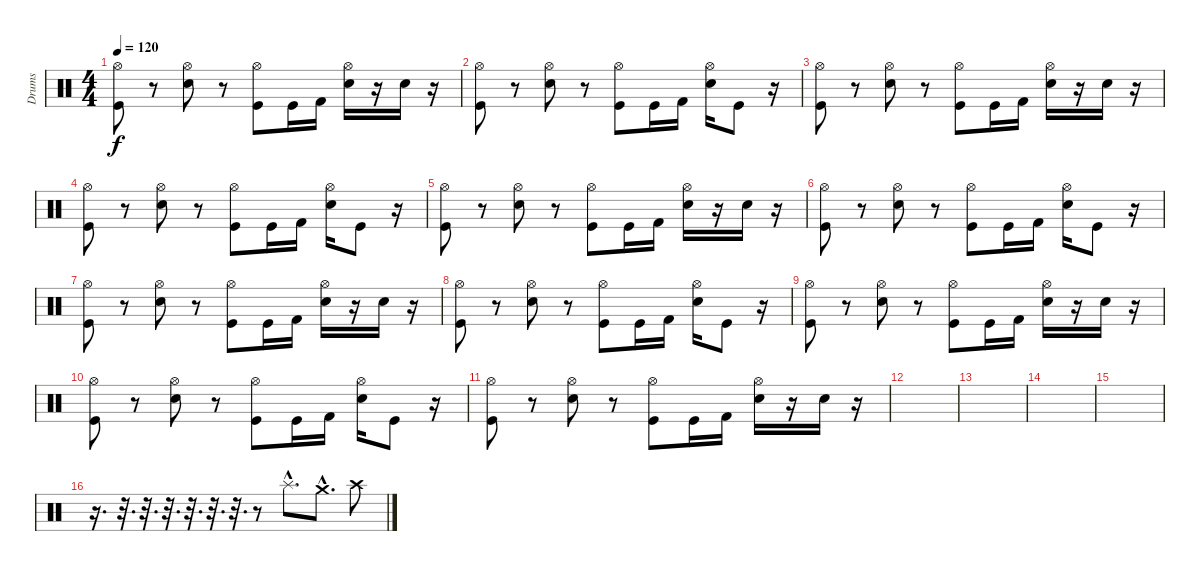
\track ("Drums" "Drums") {instrument percussion}
\staff {score}
\articulation defaults
\ts (4 4)
\tempo 120
\clef neutral
\ks c
("Hi-Hat (open)" "Kick (hit)").8{dy f} r.8 ("Hi-Hat (open)" "Snare (hit) 2").8 r.8 ("Hi-Hat (open)" "Kick (hit)").8 "Kick (hit)".16 "Kick (hit) 2".16 ("Hi-Hat (open)" "Snare (hit) 2").16 r.16 "Snare (hit) 2".16 r.16 |
("Hi-Hat (open)" "Kick (hit)").8 r.8 ("Hi-Hat (open)" "Snare (hit) 2").8 r.8 ("Hi-Hat (open)" "Kick (hit)").8 "Kick (hit)".16 "Kick (hit) 2".16 ("Hi-Hat (open)" "Snare (hit) 2").16 "Kick (hit)".8 r.16 |
("Hi-Hat (open)" "Kick (hit)").8 r.8 ("Hi-Hat (open)" "Snare (hit) 2").8 r.8 ("Hi-Hat (open)" "Kick (hit)").8 "Kick (hit)".16 "Kick (hit) 2".16 ("Hi-Hat (open)" "Snare (hit) 2").16 r.16 "Snare (hit) 2".16 r.16 |
("Hi-Hat (open)" "Kick (hit)").8 r.8 ("Hi-Hat (open)" "Snare (hit) 2").8 r.8 ("Hi-Hat (open)" "Kick (hit)").8 "Kick (hit)".16 "Kick (hit) 2".16 ("Hi-Hat (open)" "Snare (hit) 2").16 "Kick (hit)".8 r.16 |
("Hi-Hat (open)" "Kick (hit)").8 r.8 ("Hi-Hat (open)" "Snare (hit) 2").8 r.8 ("Hi-Hat (open)" "Kick (hit)").8 "Kick (hit)".16 "Kick (hit) 2".16 ("Hi-Hat (open)" "Snare (hit) 2").16 r.16 "Snare (hit) 2".16 r.16 |
("Hi-Hat (open)" "Kick (hit)").8 r.8 ("Hi-Hat (open)" "Snare (hit) 2").8 r.8 ("Hi-Hat (open)" "Kick (hit)").8 "Kick (hit)".16 "Kick (hit) 2".16 ("Hi-Hat (open)" "Snare (hit) 2").16 "Kick (hit)".8 r.16 |
("Hi-Hat (open)" "Kick (hit)").8 r.8 ("Hi-Hat (open)" "Snare (hit) 2").8 r.8 ("Hi-Hat (open)" "Kick (hit)").8 "Kick (hit)".16 "Kick (hit) 2".16 ("Hi-Hat (open)" "Snare (hit) 2").16 r.16 "Snare (hit) 2".16 r.16 |
("Hi-Hat (open)" "Kick (hit)").8 r.8 ("Hi-Hat (open)" "Snare (hit) 2").8 r.8 ("Hi-Hat (open)" "Kick (hit)").8 "Kick (hit)".16 "Kick (hit) 2".16 ("Hi-Hat (open)" "Snare (hit) 2").16 "Kick (hit)".8 r.16 |
("Hi-Hat (open)" "Kick (hit)").8 r.8 ("Hi-Hat (open)" "Snare (hit) 2").8 r.8 ("Hi-Hat (open)" "Kick (hit)").8 "Kick (hit)".16 "Kick (hit) 2".16 ("Hi-Hat (open)" "Snare (hit) 2").16 r.16 "Snare (hit) 2".16 r.16 |
("Hi-Hat (open)" "Kick (hit)").8 r.8 ("Hi-Hat (open)" "Snare (hit) 2").8 r.8 ("Hi-Hat (open)" "Kick (hit)").8 "Kick (hit)".16 "Kick (hit) 2".16 ("Hi-Hat (open)" "Snare (hit) 2").16 "Kick (hit)".8 r.16 |
("Hi-Hat (open)" "Kick (hit)").8 r.8 ("Hi-Hat (open)" "Snare (hit) 2").8 r.8 ("Hi-Hat (open)" "Kick (hit)").8 "Kick (hit)".16 "Kick (hit) 2".16 ("Hi-Hat (open)" "Snare (hit) 2").16 r.16 "Snare (hit) 2".16 r.16 |
|
|
|
|
r.16{d} r.32{d} r.32{d} r.32{d} r.32{d} r.32{d} r.32{d} r.8 "Splash (hit)"{hac}.8{d} "Crash medium (hit)"{hac}.8{d} "Crash high (hit)".8
